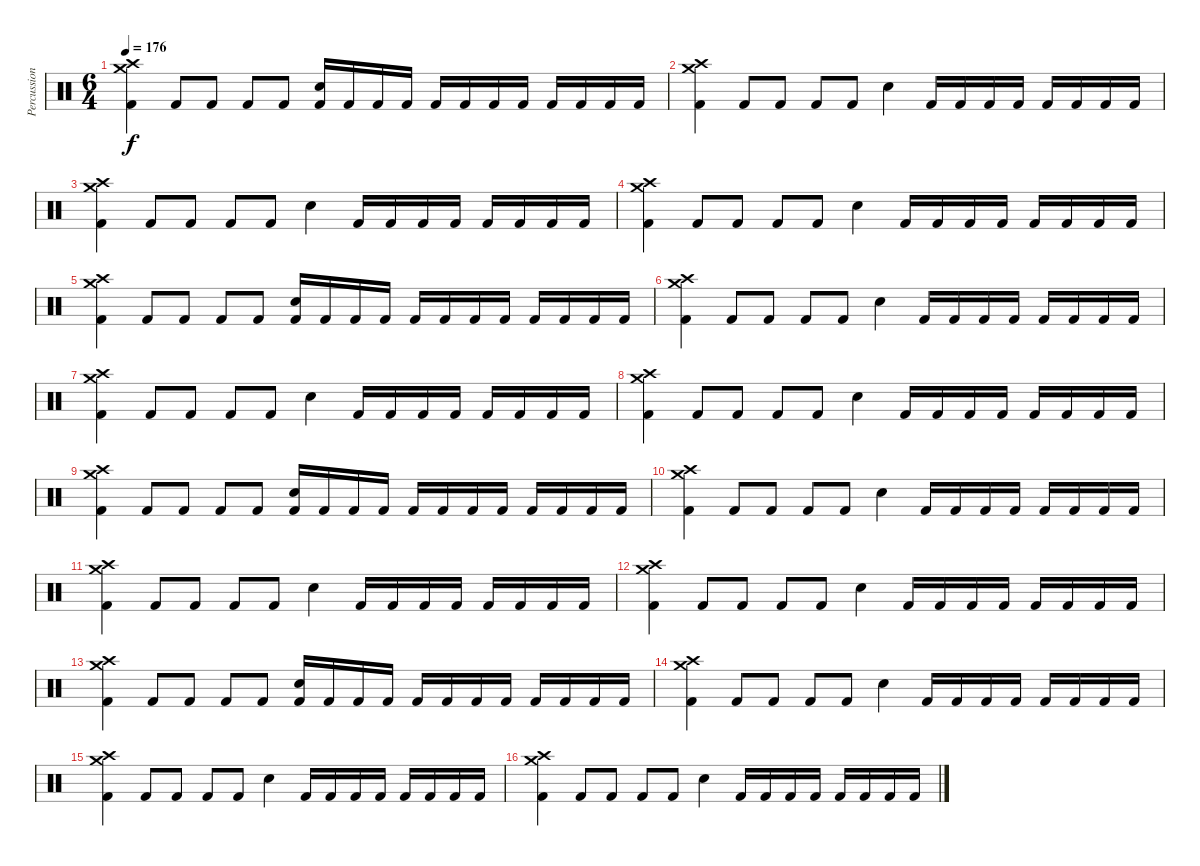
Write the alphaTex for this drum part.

\track ("Percussion" "Percussion") {instrument percussion}
\staff {score}
\articulation defaults
\ts (6 4)
\tempo 176
\clef neutral
\ks c
("Crash high (hit)" "Crash medium (hit)" "Kick (hit) 2").4{dy f} "Kick (hit) 2".8 "Kick (hit) 2".8 "Kick (hit) 2".8 "Kick (hit) 2".8 ("Snare (hit) 2" "Kick (hit) 2").16 "Kick (hit) 2".16 "Kick (hit) 2".16 "Kick (hit) 2".16 "Kick (hit) 2".16 "Kick (hit) 2".16 "Kick (hit) 2".16 "Kick (hit) 2".16 "Kick (hit) 2".16 "Kick (hit) 2".16 "Kick (hit) 2".16 "Kick (hit) 2".16 |
("Crash high (hit)" "Crash medium (hit)" "Kick (hit) 2").4 "Kick (hit) 2".8 "Kick (hit) 2".8 "Kick (hit) 2".8 "Kick (hit) 2".8 "Snare (hit) 2".4 "Kick (hit) 2".16 "Kick (hit) 2".16 "Kick (hit) 2".16 "Kick (hit) 2".16 "Kick (hit) 2".16 "Kick (hit) 2".16 "Kick (hit) 2".16 "Kick (hit) 2".16 |
("Crash high (hit)" "Crash medium (hit)" "Kick (hit) 2").4 "Kick (hit) 2".8 "Kick (hit) 2".8 "Kick (hit) 2".8 "Kick (hit) 2".8 "Snare (hit) 2".4 "Kick (hit) 2".16 "Kick (hit) 2".16 "Kick (hit) 2".16 "Kick (hit) 2".16 "Kick (hit) 2".16 "Kick (hit) 2".16 "Kick (hit) 2".16 "Kick (hit) 2".16 |
("Crash high (hit)" "Crash medium (hit)" "Kick (hit) 2").4 "Kick (hit) 2".8 "Kick (hit) 2".8 "Kick (hit) 2".8 "Kick (hit) 2".8 "Snare (hit) 2".4 "Kick (hit) 2".16 "Kick (hit) 2".16 "Kick (hit) 2".16 "Kick (hit) 2".16 "Kick (hit) 2".16 "Kick (hit) 2".16 "Kick (hit) 2".16 "Kick (hit) 2".16 |
("Crash high (hit)" "Crash medium (hit)" "Kick (hit) 2").4 "Kick (hit) 2".8 "Kick (hit) 2".8 "Kick (hit) 2".8 "Kick (hit) 2".8 ("Snare (hit) 2" "Kick (hit) 2").16 "Kick (hit) 2".16 "Kick (hit) 2".16 "Kick (hit) 2".16 "Kick (hit) 2".16 "Kick (hit) 2".16 "Kick (hit) 2".16 "Kick (hit) 2".16 "Kick (hit) 2".16 "Kick (hit) 2".16 "Kick (hit) 2".16 "Kick (hit) 2".16 |
("Crash high (hit)" "Crash medium (hit)" "Kick (hit) 2").4 "Kick (hit) 2".8 "Kick (hit) 2".8 "Kick (hit) 2".8 "Kick (hit) 2".8 "Snare (hit) 2".4 "Kick (hit) 2".16 "Kick (hit) 2".16 "Kick (hit) 2".16 "Kick (hit) 2".16 "Kick (hit) 2".16 "Kick (hit) 2".16 "Kick (hit) 2".16 "Kick (hit) 2".16 |
("Crash high (hit)" "Crash medium (hit)" "Kick (hit) 2").4 "Kick (hit) 2".8 "Kick (hit) 2".8 "Kick (hit) 2".8 "Kick (hit) 2".8 "Snare (hit) 2".4 "Kick (hit) 2".16 "Kick (hit) 2".16 "Kick (hit) 2".16 "Kick (hit) 2".16 "Kick (hit) 2".16 "Kick (hit) 2".16 "Kick (hit) 2".16 "Kick (hit) 2".16 |
("Crash high (hit)" "Crash medium (hit)" "Kick (hit) 2").4 "Kick (hit) 2".8 "Kick (hit) 2".8 "Kick (hit) 2".8 "Kick (hit) 2".8 "Snare (hit) 2".4 "Kick (hit) 2".16 "Kick (hit) 2".16 "Kick (hit) 2".16 "Kick (hit) 2".16 "Kick (hit) 2".16 "Kick (hit) 2".16 "Kick (hit) 2".16 "Kick (hit) 2".16 |
("Crash high (hit)" "Crash medium (hit)" "Kick (hit) 2").4 "Kick (hit) 2".8 "Kick (hit) 2".8 "Kick (hit) 2".8 "Kick (hit) 2".8 ("Snare (hit) 2" "Kick (hit) 2").16 "Kick (hit) 2".16 "Kick (hit) 2".16 "Kick (hit) 2".16 "Kick (hit) 2".16 "Kick (hit) 2".16 "Kick (hit) 2".16 "Kick (hit) 2".16 "Kick (hit) 2".16 "Kick (hit) 2".16 "Kick (hit) 2".16 "Kick (hit) 2".16 |
("Crash high (hit)" "Crash medium (hit)" "Kick (hit) 2").4 "Kick (hit) 2".8 "Kick (hit) 2".8 "Kick (hit) 2".8 "Kick (hit) 2".8 "Snare (hit) 2".4 "Kick (hit) 2".16 "Kick (hit) 2".16 "Kick (hit) 2".16 "Kick (hit) 2".16 "Kick (hit) 2".16 "Kick (hit) 2".16 "Kick (hit) 2".16 "Kick (hit) 2".16 |
("Crash high (hit)" "Crash medium (hit)" "Kick (hit) 2").4 "Kick (hit) 2".8 "Kick (hit) 2".8 "Kick (hit) 2".8 "Kick (hit) 2".8 "Snare (hit) 2".4 "Kick (hit) 2".16 "Kick (hit) 2".16 "Kick (hit) 2".16 "Kick (hit) 2".16 "Kick (hit) 2".16 "Kick (hit) 2".16 "Kick (hit) 2".16 "Kick (hit) 2".16 |
("Crash high (hit)" "Crash medium (hit)" "Kick (hit) 2").4 "Kick (hit) 2".8 "Kick (hit) 2".8 "Kick (hit) 2".8 "Kick (hit) 2".8 "Snare (hit) 2".4 "Kick (hit) 2".16 "Kick (hit) 2".16 "Kick (hit) 2".16 "Kick (hit) 2".16 "Kick (hit) 2".16 "Kick (hit) 2".16 "Kick (hit) 2".16 "Kick (hit) 2".16 |
("Crash high (hit)" "Crash medium (hit)" "Kick (hit) 2").4 "Kick (hit) 2".8 "Kick (hit) 2".8 "Kick (hit) 2".8 "Kick (hit) 2".8 ("Snare (hit) 2" "Kick (hit) 2").16 "Kick (hit) 2".16 "Kick (hit) 2".16 "Kick (hit) 2".16 "Kick (hit) 2".16 "Kick (hit) 2".16 "Kick (hit) 2".16 "Kick (hit) 2".16 "Kick (hit) 2".16 "Kick (hit) 2".16 "Kick (hit) 2".16 "Kick (hit) 2".16 |
("Crash high (hit)" "Crash medium (hit)" "Kick (hit) 2").4 "Kick (hit) 2".8 "Kick (hit) 2".8 "Kick (hit) 2".8 "Kick (hit) 2".8 "Snare (hit) 2".4 "Kick (hit) 2".16 "Kick (hit) 2".16 "Kick (hit) 2".16 "Kick (hit) 2".16 "Kick (hit) 2".16 "Kick (hit) 2".16 "Kick (hit) 2".16 "Kick (hit) 2".16 |
("Crash high (hit)" "Crash medium (hit)" "Kick (hit) 2").4 "Kick (hit) 2".8 "Kick (hit) 2".8 "Kick (hit) 2".8 "Kick (hit) 2".8 "Snare (hit) 2".4 "Kick (hit) 2".16 "Kick (hit) 2".16 "Kick (hit) 2".16 "Kick (hit) 2".16 "Kick (hit) 2".16 "Kick (hit) 2".16 "Kick (hit) 2".16 "Kick (hit) 2".16 |
("Crash high (hit)" "Crash medium (hit)" "Kick (hit) 2").4 "Kick (hit) 2".8 "Kick (hit) 2".8 "Kick (hit) 2".8 "Kick (hit) 2".8 "Snare (hit) 2".4 "Kick (hit) 2".16 "Kick (hit) 2".16 "Kick (hit) 2".16 "Kick (hit) 2".16 "Kick (hit) 2".16 "Kick (hit) 2".16 "Kick (hit) 2".16 "Kick (hit) 2".16
